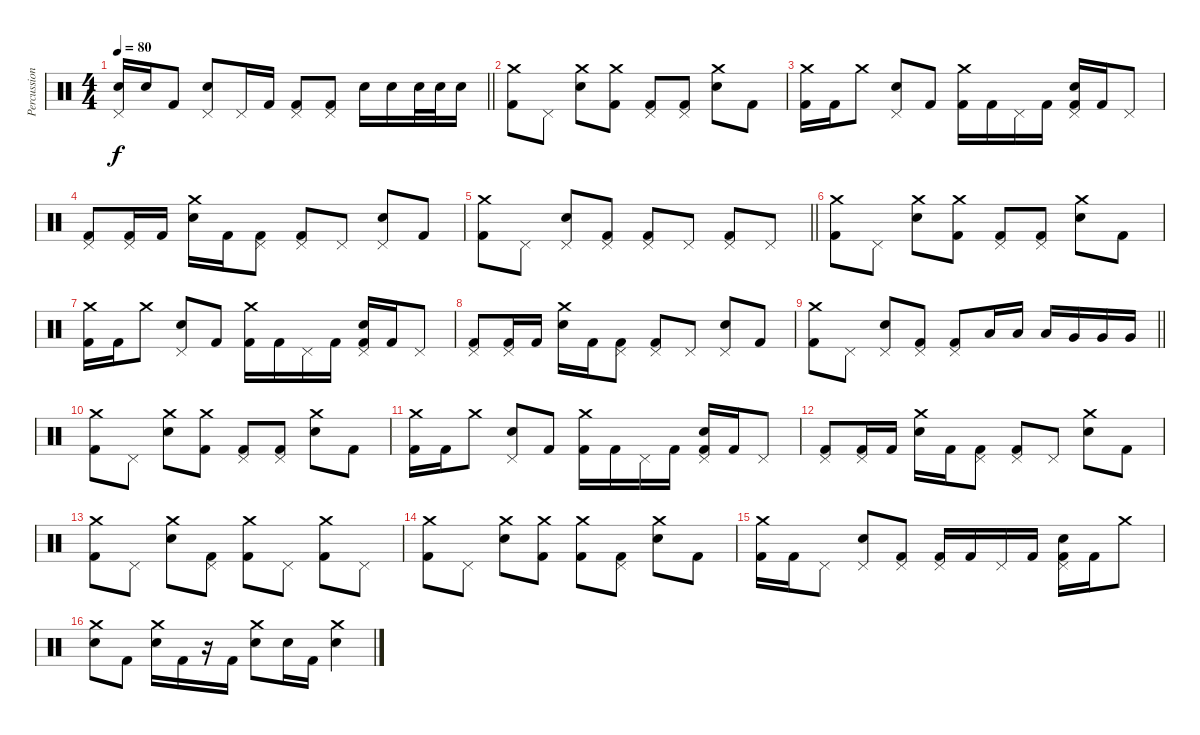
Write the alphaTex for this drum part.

\track ("Percussion" "Percussion") {instrument percussion}
\staff {score}
\articulation defaults
\ts (4 4)
\tempo 80
\clef neutral
\barLineRight lightlight
\ks c
("Pedal Hi-Hat (hit)" "Electric Snare (hit)").16{dy f} "Electric Snare (hit)".16 "Kick (hit) 2".8 ("Pedal Hi-Hat (hit)" "Electric Snare (hit)").8 "Pedal Hi-Hat (hit)".16 "Kick (hit) 2".16 ("Pedal Hi-Hat (hit)" "Kick (hit) 2").8 ("Pedal Hi-Hat (hit)" "Kick (hit) 2").8 "Electric Snare (hit)".16 "Electric Snare (hit)".16 "Electric Snare (hit)".32 "Electric Snare (hit)".32 "Electric Snare (hit)".16 |
("Crash medium (hit)" "Kick (hit) 2").8 "Pedal Hi-Hat (hit)".8 ("Crash medium (hit)" "Electric Snare (hit)").8 ("Crash medium (hit)" "Kick (hit) 2").8 ("Pedal Hi-Hat (hit)" "Kick (hit) 2").8 ("Pedal Hi-Hat (hit)" "Kick (hit) 2").8 ("Crash medium (hit)" "Electric Snare (hit)").8 "Kick (hit) 2".8 |
("Crash medium (hit)" "Kick (hit) 2").16 "Kick (hit) 2".16 "Crash medium (hit)".8 ("Pedal Hi-Hat (hit)" "Electric Snare (hit)").8 "Kick (hit) 2".8 ("Crash medium (hit)" "Kick (hit) 2").16 "Kick (hit) 2".16 "Pedal Hi-Hat (hit)".16 "Kick (hit) 2".16 ("Pedal Hi-Hat (hit)" "Electric Snare (hit)" "Kick (hit) 2").16 "Kick (hit) 2".16 "Pedal Hi-Hat (hit)".8 |
("Pedal Hi-Hat (hit)" "Kick (hit) 2").8 ("Pedal Hi-Hat (hit)" "Kick (hit) 2").16 "Kick (hit) 2".16 ("Crash medium (hit)" "Electric Snare (hit)").16 "Kick (hit) 2".16 ("Pedal Hi-Hat (hit)" "Kick (hit) 2").8 ("Pedal Hi-Hat (hit)" "Kick (hit) 2").8 "Pedal Hi-Hat (hit)".8 ("Pedal Hi-Hat (hit)" "Electric Snare (hit)").8 "Kick (hit) 2".8 |
\barLineRight lightlight
("Crash medium (hit)" "Kick (hit) 2").8 "Pedal Hi-Hat (hit)".8 ("Pedal Hi-Hat (hit)" "Electric Snare (hit)").8 ("Pedal Hi-Hat (hit)" "Kick (hit) 2").8 ("Pedal Hi-Hat (hit)" "Kick (hit) 2").8 "Pedal Hi-Hat (hit)".8 ("Pedal Hi-Hat (hit)" "Kick (hit) 2").8 "Pedal Hi-Hat (hit)".8 |
("Crash medium (hit)" "Kick (hit) 2").8 "Pedal Hi-Hat (hit)".8 ("Crash medium (hit)" "Electric Snare (hit)").8 ("Crash medium (hit)" "Kick (hit) 2").8 ("Pedal Hi-Hat (hit)" "Kick (hit) 2").8 ("Pedal Hi-Hat (hit)" "Kick (hit) 2").8 ("Crash medium (hit)" "Electric Snare (hit)").8 "Kick (hit) 2".8 |
("Crash medium (hit)" "Kick (hit) 2").16 "Kick (hit) 2".16 "Crash medium (hit)".8 ("Pedal Hi-Hat (hit)" "Electric Snare (hit)").8 "Kick (hit) 2".8 ("Crash medium (hit)" "Kick (hit) 2").16 "Kick (hit) 2".16 "Pedal Hi-Hat (hit)".16 "Kick (hit) 2".16 ("Pedal Hi-Hat (hit)" "Electric Snare (hit)" "Kick (hit) 2").16 "Kick (hit) 2".16 "Pedal Hi-Hat (hit)".8 |
("Pedal Hi-Hat (hit)" "Kick (hit) 2").8 ("Pedal Hi-Hat (hit)" "Kick (hit) 2").16 "Kick (hit) 2".16 ("Crash medium (hit)" "Electric Snare (hit)").16 "Kick (hit) 2".16 ("Pedal Hi-Hat (hit)" "Kick (hit) 2").8 ("Pedal Hi-Hat (hit)" "Kick (hit) 2").8 "Pedal Hi-Hat (hit)".8 ("Pedal Hi-Hat (hit)" "Electric Snare (hit)").8 "Kick (hit) 2".8 |
\barLineRight lightlight
("Crash medium (hit)" "Kick (hit) 2").8 "Pedal Hi-Hat (hit)".8 ("Pedal Hi-Hat (hit)" "Electric Snare (hit)").8 ("Pedal Hi-Hat (hit)" "Kick (hit) 2").8 ("Pedal Hi-Hat (hit)" "Kick (hit) 2").8 "Low Tom (hit)".16 "Low Tom (hit)".16 "Low Tom (hit)".16 "Very Low Tom (hit)".16 "Very Low Tom (hit)".16 "Very Low Tom (hit)".16 |
("Crash medium (hit)" "Kick (hit) 2").8 "Pedal Hi-Hat (hit)".8 ("Crash medium (hit)" "Electric Snare (hit)").8 ("Crash medium (hit)" "Kick (hit) 2").8 ("Pedal Hi-Hat (hit)" "Kick (hit) 2").8 ("Pedal Hi-Hat (hit)" "Kick (hit) 2").8 ("Crash medium (hit)" "Electric Snare (hit)").8 "Kick (hit) 2".8 |
("Crash medium (hit)" "Kick (hit) 2").16 "Kick (hit) 2".16 "Crash medium (hit)".8 ("Pedal Hi-Hat (hit)" "Electric Snare (hit)").8 "Kick (hit) 2".8 ("Crash medium (hit)" "Kick (hit) 2").16 "Kick (hit) 2".16 "Pedal Hi-Hat (hit)".16 "Kick (hit) 2".16 ("Pedal Hi-Hat (hit)" "Electric Snare (hit)" "Kick (hit) 2").16 "Kick (hit) 2".16 "Pedal Hi-Hat (hit)".8 |
("Pedal Hi-Hat (hit)" "Kick (hit) 2").8 ("Pedal Hi-Hat (hit)" "Kick (hit) 2").16 "Kick (hit) 2".16 ("Crash medium (hit)" "Electric Snare (hit)").16 "Kick (hit) 2".16 ("Pedal Hi-Hat (hit)" "Kick (hit) 2").8 ("Pedal Hi-Hat (hit)" "Kick (hit) 2").8 "Pedal Hi-Hat (hit)".8 ("Crash medium (hit)" "Electric Snare (hit)").8 "Kick (hit) 2".8 |
("Crash medium (hit)" "Kick (hit) 2").8 "Pedal Hi-Hat (hit)".8 ("Crash medium (hit)" "Electric Snare (hit)").8 ("Pedal Hi-Hat (hit)" "Kick (hit) 2").8 ("Crash medium (hit)" "Kick (hit) 2").8 "Pedal Hi-Hat (hit)".8 ("Crash medium (hit)" "Kick (hit) 2").8 "Pedal Hi-Hat (hit)".8 |
("Crash medium (hit)" "Kick (hit) 2").8 "Pedal Hi-Hat (hit)".8 ("Crash medium (hit)" "Electric Snare (hit)").8 ("Crash medium (hit)" "Kick (hit) 2").8 ("Crash medium (hit)" "Kick (hit) 2").8 ("Pedal Hi-Hat (hit)" "Kick (hit) 2").8 ("Crash medium (hit)" "Electric Snare (hit)").8 "Kick (hit) 2".8 |
("Crash medium (hit)" "Kick (hit) 2").16 "Kick (hit) 2".16 "Pedal Hi-Hat (hit)".8 ("Pedal Hi-Hat (hit)" "Electric Snare (hit)").8 ("Pedal Hi-Hat (hit)" "Kick (hit) 2").8 ("Pedal Hi-Hat (hit)" "Kick (hit) 2").16 "Kick (hit) 2".16 "Pedal Hi-Hat (hit)".16 "Kick (hit) 2".16 ("Pedal Hi-Hat (hit)" "Electric Snare (hit)" "Kick (hit) 2").16 "Kick (hit) 2".16 "Crash medium (hit)".8 |
("Crash medium (hit)" "Electric Snare (hit)").8 "Kick (hit) 2".8 ("Crash medium (hit)" "Electric Snare (hit)").16 "Kick (hit) 2".16 r.16 "Kick (hit) 2".16 ("Crash medium (hit)" "Electric Snare (hit)").8 "Electric Snare (hit)".16 "Kick (hit) 2".16 ("Crash medium (hit)" "Electric Snare (hit)").4
